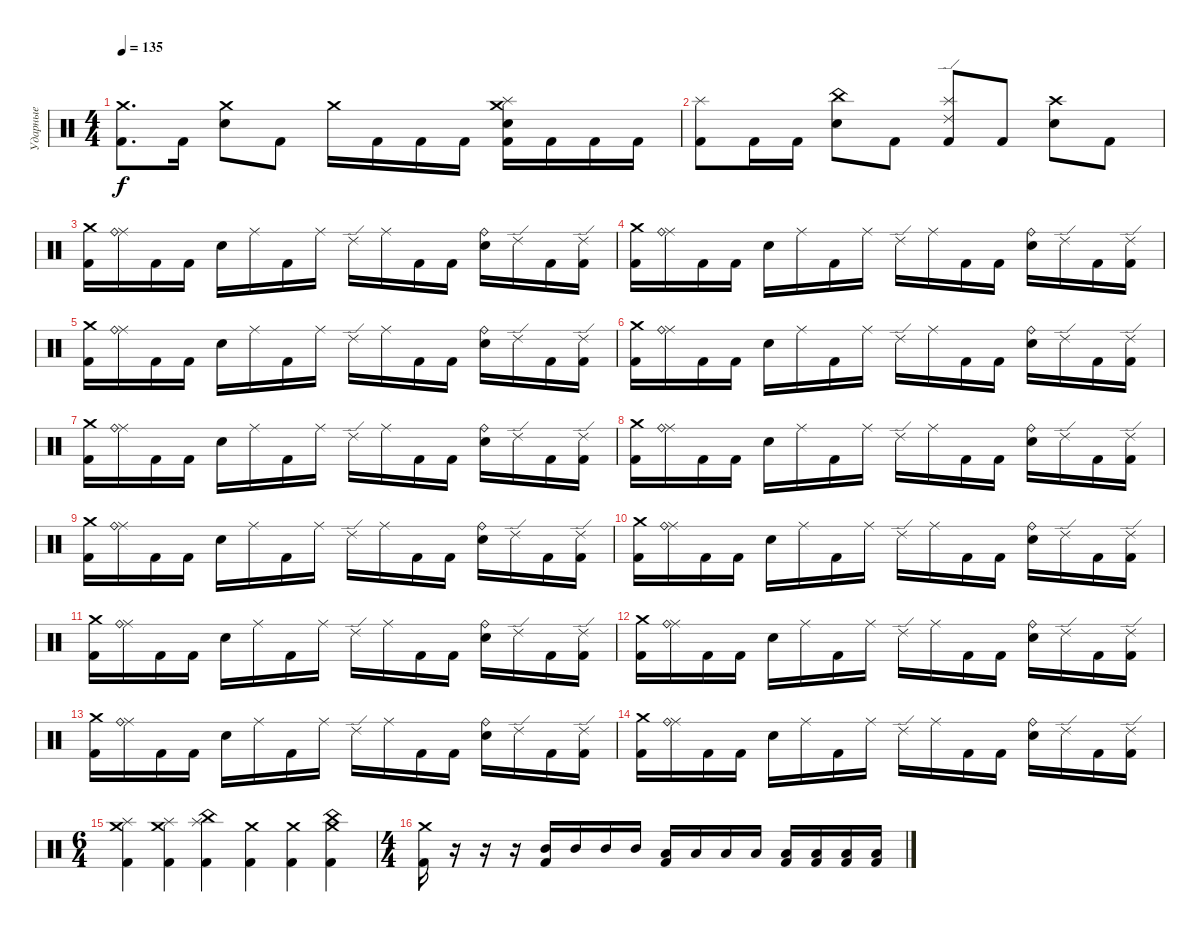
\track ("Ударные" "Ударные") {instrument percussion}
\staff {score}
\articulation defaults
\ts (4 4)
\tempo 135
\clef neutral
\ks c
("Kick (hit) 2" "Crash medium (hit)").8{d dy f} "Kick (hit) 2".16 ("Snare (hit) 2" "Crash medium (hit)").8 "Kick (hit) 2".8 "Crash medium (hit)".16 "Kick (hit) 2".16 "Kick (hit) 2".16 "Kick (hit) 2".16 ("Snare (hit) 2" "Crash medium (hit)" "Kick (hit) 2" "Splash (hit)").16 "Kick (hit) 2".16 "Kick (hit) 2".16 "Kick (hit) 2".16 |
("Kick (hit) 2" "Splash (hit)").8 "Kick (hit) 2".16 "Kick (hit) 2".16 ("Snare (hit) 2" "China (hit)").8 "Kick (hit) 2".8 ("Kick (hit) 2" "Ride (edge) 2" "Splash (hit)").8 "Kick (hit) 2".8 ("Snare (hit) 2" "Crash high (hit)").8 "Kick (hit) 2".8 |
("Kick (hit) 2" "Crash medium (hit)").16 ("Ride (middle)" "Ride (bell)").16 "Kick (hit) 2".16 "Kick (hit) 2".16 "Snare (hit) 2".16 "Ride (middle)".16 "Kick (hit) 2".16 "Ride (middle)".16 "Ride (edge) 2".16 "Ride (middle)".16 "Kick (hit) 2".16 "Kick (hit) 2".16 ("Snare (hit) 2" "Ride (bell)").16 "Ride (edge) 2".16 "Kick (hit) 2".16 ("Ride (edge) 2" "Kick (hit) 2").16 |
("Kick (hit) 2" "Crash medium (hit)").16 ("Ride (middle)" "Ride (bell)").16 "Kick (hit) 2".16 "Kick (hit) 2".16 "Snare (hit) 2".16 "Ride (middle)".16 "Kick (hit) 2".16 "Ride (middle)".16 "Ride (edge) 2".16 "Ride (middle)".16 "Kick (hit) 2".16 "Kick (hit) 2".16 ("Snare (hit) 2" "Ride (bell)").16 "Ride (edge) 2".16 "Kick (hit) 2".16 ("Ride (edge) 2" "Kick (hit) 2").16 |
("Kick (hit) 2" "Crash medium (hit)").16 ("Ride (middle)" "Ride (bell)").16 "Kick (hit) 2".16 "Kick (hit) 2".16 "Snare (hit) 2".16 "Ride (middle)".16 "Kick (hit) 2".16 "Ride (middle)".16 "Ride (edge) 2".16 "Ride (middle)".16 "Kick (hit) 2".16 "Kick (hit) 2".16 ("Snare (hit) 2" "Ride (bell)").16 "Ride (edge) 2".16 "Kick (hit) 2".16 ("Ride (edge) 2" "Kick (hit) 2").16 |
("Kick (hit) 2" "Crash medium (hit)").16 ("Ride (middle)" "Ride (bell)").16 "Kick (hit) 2".16 "Kick (hit) 2".16 "Snare (hit) 2".16 "Ride (middle)".16 "Kick (hit) 2".16 "Ride (middle)".16 "Ride (edge) 2".16 "Ride (middle)".16 "Kick (hit) 2".16 "Kick (hit) 2".16 ("Snare (hit) 2" "Ride (bell)").16 "Ride (edge) 2".16 "Kick (hit) 2".16 ("Ride (edge) 2" "Kick (hit) 2").16 |
("Kick (hit) 2" "Crash medium (hit)").16 ("Ride (middle)" "Ride (bell)").16 "Kick (hit) 2".16 "Kick (hit) 2".16 "Snare (hit) 2".16 "Ride (middle)".16 "Kick (hit) 2".16 "Ride (middle)".16 "Ride (edge) 2".16 "Ride (middle)".16 "Kick (hit) 2".16 "Kick (hit) 2".16 ("Snare (hit) 2" "Ride (bell)").16 "Ride (edge) 2".16 "Kick (hit) 2".16 ("Ride (edge) 2" "Kick (hit) 2").16 |
("Kick (hit) 2" "Crash medium (hit)").16 ("Ride (middle)" "Ride (bell)").16 "Kick (hit) 2".16 "Kick (hit) 2".16 "Snare (hit) 2".16 "Ride (middle)".16 "Kick (hit) 2".16 "Ride (middle)".16 "Ride (edge) 2".16 "Ride (middle)".16 "Kick (hit) 2".16 "Kick (hit) 2".16 ("Snare (hit) 2" "Ride (bell)").16 "Ride (edge) 2".16 "Kick (hit) 2".16 ("Ride (edge) 2" "Kick (hit) 2").16 |
("Kick (hit) 2" "Crash medium (hit)").16 ("Ride (middle)" "Ride (bell)").16 "Kick (hit) 2".16 "Kick (hit) 2".16 "Snare (hit) 2".16 "Ride (middle)".16 "Kick (hit) 2".16 "Ride (middle)".16 "Ride (edge) 2".16 "Ride (middle)".16 "Kick (hit) 2".16 "Kick (hit) 2".16 ("Snare (hit) 2" "Ride (bell)").16 "Ride (edge) 2".16 "Kick (hit) 2".16 ("Ride (edge) 2" "Kick (hit) 2").16 |
("Kick (hit) 2" "Crash medium (hit)").16 ("Ride (middle)" "Ride (bell)").16 "Kick (hit) 2".16 "Kick (hit) 2".16 "Snare (hit) 2".16 "Ride (middle)".16 "Kick (hit) 2".16 "Ride (middle)".16 "Ride (edge) 2".16 "Ride (middle)".16 "Kick (hit) 2".16 "Kick (hit) 2".16 ("Snare (hit) 2" "Ride (bell)").16 "Ride (edge) 2".16 "Kick (hit) 2".16 ("Ride (edge) 2" "Kick (hit) 2").16 |
("Kick (hit) 2" "Crash medium (hit)").16 ("Ride (middle)" "Ride (bell)").16 "Kick (hit) 2".16 "Kick (hit) 2".16 "Snare (hit) 2".16 "Ride (middle)".16 "Kick (hit) 2".16 "Ride (middle)".16 "Ride (edge) 2".16 "Ride (middle)".16 "Kick (hit) 2".16 "Kick (hit) 2".16 ("Snare (hit) 2" "Ride (bell)").16 "Ride (edge) 2".16 "Kick (hit) 2".16 ("Ride (edge) 2" "Kick (hit) 2").16 |
("Kick (hit) 2" "Crash medium (hit)").16 ("Ride (middle)" "Ride (bell)").16 "Kick (hit) 2".16 "Kick (hit) 2".16 "Snare (hit) 2".16 "Ride (middle)".16 "Kick (hit) 2".16 "Ride (middle)".16 "Ride (edge) 2".16 "Ride (middle)".16 "Kick (hit) 2".16 "Kick (hit) 2".16 ("Snare (hit) 2" "Ride (bell)").16 "Ride (edge) 2".16 "Kick (hit) 2".16 ("Ride (edge) 2" "Kick (hit) 2").16 |
("Kick (hit) 2" "Crash medium (hit)").16 ("Ride (middle)" "Ride (bell)").16 "Kick (hit) 2".16 "Kick (hit) 2".16 "Snare (hit) 2".16 "Ride (middle)".16 "Kick (hit) 2".16 "Ride (middle)".16 "Ride (edge) 2".16 "Ride (middle)".16 "Kick (hit) 2".16 "Kick (hit) 2".16 ("Snare (hit) 2" "Ride (bell)").16 "Ride (edge) 2".16 "Kick (hit) 2".16 ("Ride (edge) 2" "Kick (hit) 2").16 |
("Kick (hit) 2" "Crash medium (hit)").16 ("Ride (middle)" "Ride (bell)").16 "Kick (hit) 2".16 "Kick (hit) 2".16 "Snare (hit) 2".16 "Ride (middle)".16 "Kick (hit) 2".16 "Ride (middle)".16 "Ride (edge) 2".16 "Ride (middle)".16 "Kick (hit) 2".16 "Kick (hit) 2".16 ("Snare (hit) 2" "Ride (bell)").16 "Ride (edge) 2".16 "Kick (hit) 2".16 ("Ride (edge) 2" "Kick (hit) 2").16 |
\ts (6 4)
("Kick (hit) 2" "Crash medium (hit)" "Splash (hit)").4 ("Kick (hit) 2" "Splash (hit)" "Crash medium (hit)").4 ("Kick (hit) 2" "China (hit)" "Splash (hit)").4 ("Kick (hit) 2" "Crash medium (hit)").4 ("Kick (hit) 2" "Crash medium (hit)").4 ("Kick (hit) 2" "Crash medium (hit)" "China (hit)").4 |
\ts (4 4)
("Kick (hit) 2" "Crash medium (hit)").16 r.16 r.16 r.16 ("Mid Tom (hit)" "Kick (hit) 2").16 "Mid Tom (hit)".16 "Mid Tom (hit)".16 "Mid Tom (hit)".16 ("Low Tom (hit)" "Kick (hit) 2").16 "Low Tom (hit)".16 "Low Tom (hit)".16 "Low Tom (hit)".16 ("Low Floor Tom (hit)" "Kick (hit) 2").16 ("Low Floor Tom (hit)" "Kick (hit) 2").16 ("Low Floor Tom (hit)" "Kick (hit) 2").16 ("Low Floor Tom (hit)" "Kick (hit) 2").16
